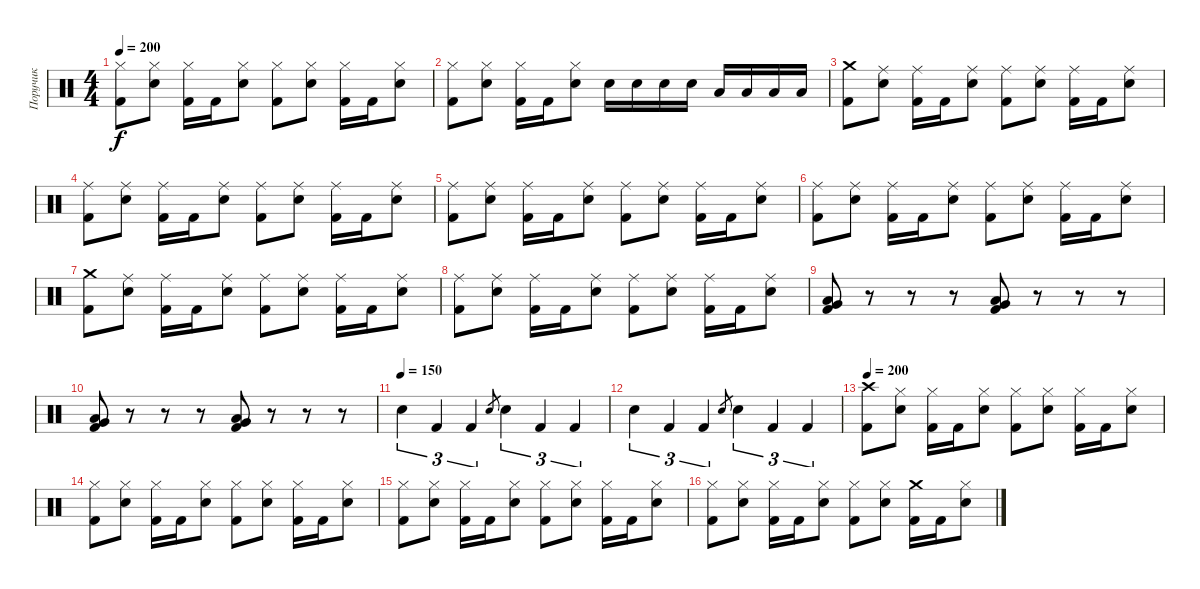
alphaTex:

\track ("Поручик" "Поручик") {instrument percussion}
\staff {score}
\articulation defaults
\ts (4 4)
\tempo 200
\clef neutral
\ks c
("Hi-Hat (closed)" "Kick (hit) 2").8{dy f} ("Hi-Hat (closed)" "Electric Snare (hit)").8 ("Hi-Hat (closed)" "Kick (hit) 2").16 "Kick (hit) 2".16 ("Hi-Hat (closed)" "Electric Snare (hit)").8 ("Hi-Hat (closed)" "Kick (hit) 2").8 ("Hi-Hat (closed)" "Electric Snare (hit)").8 ("Hi-Hat (closed)" "Kick (hit) 2").16 "Kick (hit) 2".16 ("Hi-Hat (closed)" "Electric Snare (hit)").8 |
("Hi-Hat (closed)" "Kick (hit) 2").8 ("Hi-Hat (closed)" "Electric Snare (hit)").8 ("Hi-Hat (closed)" "Kick (hit) 2").16 "Kick (hit) 2".16 ("Hi-Hat (closed)" "Electric Snare (hit)").8 "Electric Snare (hit)".16 "Electric Snare (hit)".16 "Electric Snare (hit)".16 "Electric Snare (hit)".16 "Low Floor Tom (hit)".16 "Low Floor Tom (hit)".16 "Low Floor Tom (hit)".16 "Low Floor Tom (hit)".16 |
("Crash medium (hit)" "Kick (hit) 2").8 ("Ride (middle)" "Electric Snare (hit)").8 ("Ride (middle)" "Kick (hit) 2").16 "Kick (hit) 2".16 ("Ride (middle)" "Electric Snare (hit)").8 ("Ride (middle)" "Kick (hit) 2").8 ("Ride (middle)" "Electric Snare (hit)").8 ("Ride (middle)" "Kick (hit) 2").16 "Kick (hit) 2".16 ("Ride (middle)" "Electric Snare (hit)").8 |
("Ride (middle)" "Kick (hit) 2").8 ("Ride (middle)" "Electric Snare (hit)").8 ("Ride (middle)" "Kick (hit) 2").16 "Kick (hit) 2".16 ("Ride (middle)" "Electric Snare (hit)").8 ("Ride (middle)" "Kick (hit) 2").8 ("Ride (middle)" "Electric Snare (hit)").8 ("Ride (middle)" "Kick (hit) 2").16 "Kick (hit) 2".16 ("Ride (middle)" "Electric Snare (hit)").8 |
("Ride (middle)" "Kick (hit) 2").8 ("Ride (middle)" "Electric Snare (hit)").8 ("Ride (middle)" "Kick (hit) 2").16 "Kick (hit) 2".16 ("Ride (middle)" "Electric Snare (hit)").8 ("Ride (middle)" "Kick (hit) 2").8 ("Ride (middle)" "Electric Snare (hit)").8 ("Ride (middle)" "Kick (hit) 2").16 "Kick (hit) 2".16 ("Ride (middle)" "Electric Snare (hit)").8 |
("Ride (middle)" "Kick (hit) 2").8 ("Ride (middle)" "Electric Snare (hit)").8 ("Ride (middle)" "Kick (hit) 2").16 "Kick (hit) 2".16 ("Ride (middle)" "Electric Snare (hit)").8 ("Ride (middle)" "Kick (hit) 2").8 ("Ride (middle)" "Electric Snare (hit)").8 ("Ride (middle)" "Kick (hit) 2").16 "Kick (hit) 2".16 ("Ride (middle)" "Electric Snare (hit)").8 |
("Crash medium (hit)" "Kick (hit) 2").8 ("Ride (middle)" "Electric Snare (hit)").8 ("Ride (middle)" "Kick (hit) 2").16 "Kick (hit) 2".16 ("Ride (middle)" "Electric Snare (hit)").8 ("Ride (middle)" "Kick (hit) 2").8 ("Ride (middle)" "Electric Snare (hit)").8 ("Ride (middle)" "Kick (hit) 2").16 "Kick (hit) 2".16 ("Ride (middle)" "Electric Snare (hit)").8 |
("Ride (middle)" "Kick (hit) 2").8 ("Ride (middle)" "Electric Snare (hit)").8 ("Ride (middle)" "Kick (hit) 2").16 "Kick (hit) 2".16 ("Ride (middle)" "Electric Snare (hit)").8 ("Ride (middle)" "Kick (hit) 2").8 ("Ride (middle)" "Electric Snare (hit)").8 ("Ride (middle)" "Kick (hit) 2").16 "Kick (hit) 2".16 ("Ride (middle)" "Electric Snare (hit)").8 |
("Very Low Tom (hit)" "Low Floor Tom (hit)" "Kick (hit) 2").8 r.8 r.8 r.8 ("Very Low Tom (hit)" "Low Floor Tom (hit)" "Kick (hit) 2").8 r.8 r.8 r.8 |
("Very Low Tom (hit)" "Low Floor Tom (hit)" "Kick (hit) 2").8 r.8 r.8 r.8 ("Very Low Tom (hit)" "Low Floor Tom (hit)" "Kick (hit) 2").8 r.8 r.8 r.8 |
\tempo (150)
"Electric Snare (hit)".4{tu (3 2)} "Kick (hit) 2".4{tu (3 2)} "Kick (hit) 2".4{tu (3 2)} "Electric Snare (hit)".8{gr} "Electric Snare (hit)".4{tu (3 2)} "Kick (hit) 2".4{tu (3 2)} "Kick (hit) 2".4{tu (3 2)} |
"Electric Snare (hit)".4{tu (3 2)} "Kick (hit) 2".4{tu (3 2)} "Kick (hit) 2".4{tu (3 2)} "Electric Snare (hit)".8{gr} "Electric Snare (hit)".4{tu (3 2)} "Kick (hit) 2".4{tu (3 2)} "Kick (hit) 2".4{tu (3 2)} |
\tempo 200
("Crash high (hit)" "Kick (hit) 2").8 ("Hi-Hat (closed)" "Electric Snare (hit)").8 ("Hi-Hat (closed)" "Kick (hit) 2").16 "Kick (hit) 2".16 ("Hi-Hat (closed)" "Electric Snare (hit)").8 ("Hi-Hat (closed)" "Kick (hit) 2").8 ("Hi-Hat (closed)" "Electric Snare (hit)").8 ("Hi-Hat (closed)" "Kick (hit) 2").16 "Kick (hit) 2".16 ("Hi-Hat (closed)" "Electric Snare (hit)").8 |
("Hi-Hat (closed)" "Kick (hit) 2").8 ("Hi-Hat (closed)" "Electric Snare (hit)").8 ("Hi-Hat (closed)" "Kick (hit) 2").16 "Kick (hit) 2".16 ("Hi-Hat (closed)" "Electric Snare (hit)").8 ("Hi-Hat (closed)" "Kick (hit) 2").8 ("Hi-Hat (closed)" "Electric Snare (hit)").8 ("Hi-Hat (closed)" "Kick (hit) 2").16 "Kick (hit) 2".16 ("Hi-Hat (closed)" "Electric Snare (hit)").8 |
("Hi-Hat (closed)" "Kick (hit) 2").8 ("Hi-Hat (closed)" "Electric Snare (hit)").8 ("Hi-Hat (closed)" "Kick (hit) 2").16 "Kick (hit) 2".16 ("Hi-Hat (closed)" "Electric Snare (hit)").8 ("Hi-Hat (closed)" "Kick (hit) 2").8 ("Hi-Hat (closed)" "Electric Snare (hit)").8 ("Hi-Hat (closed)" "Kick (hit) 2").16 "Kick (hit) 2".16 ("Hi-Hat (closed)" "Electric Snare (hit)").8 |
("Hi-Hat (closed)" "Kick (hit) 2").8 ("Hi-Hat (closed)" "Electric Snare (hit)").8 ("Hi-Hat (closed)" "Kick (hit) 2").16 "Kick (hit) 2".16 ("Hi-Hat (closed)" "Electric Snare (hit)").8 ("Hi-Hat (closed)" "Kick (hit) 2").8 ("Hi-Hat (closed)" "Electric Snare (hit)").8 ("Crash medium (hit)" "Kick (hit) 2").16 "Kick (hit) 2".16 ("Hi-Hat (closed)" "Electric Snare (hit)").8
